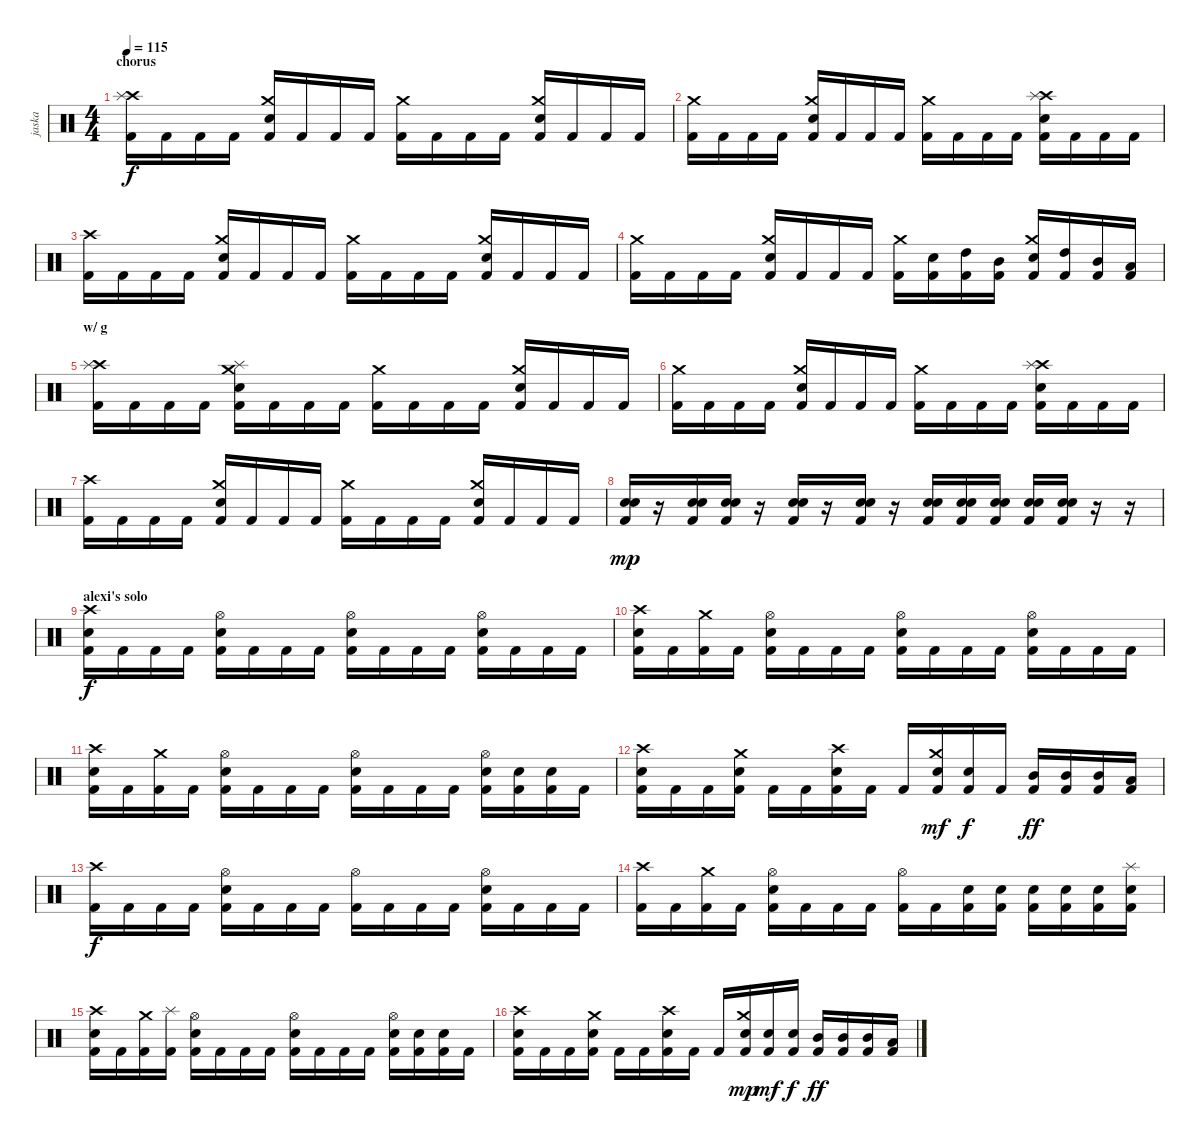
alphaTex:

\track ("jaska" "jaska") {instrument percussion}
\staff {score}
\articulation defaults
\ts (4 4)
\section ("" "chorus")
\tempo 115
\clef neutral
\ks c
("Crash high (hit)" "Splash (hit)" "Kick (hit) 2").16{dy f} "Kick (hit) 2".16 "Kick (hit) 2".16 "Kick (hit) 2".16 ("Crash medium (hit)" "Electric Snare (hit)" "Kick (hit) 2").16 "Kick (hit) 2".16 "Kick (hit) 2".16 "Kick (hit) 2".16 ("Crash medium (hit)" "Kick (hit) 2").16 "Kick (hit) 2".16 "Kick (hit) 2".16 "Kick (hit) 2".16 ("Crash medium (hit)" "Electric Snare (hit)" "Kick (hit) 2").16 "Kick (hit) 2".16 "Kick (hit) 2".16 "Kick (hit) 2".16 |
("Crash medium (hit)" "Kick (hit) 2").16 "Kick (hit) 2".16 "Kick (hit) 2".16 "Kick (hit) 2".16 ("Crash medium (hit)" "Electric Snare (hit)" "Kick (hit) 2").16 "Kick (hit) 2".16 "Kick (hit) 2".16 "Kick (hit) 2".16 ("Crash medium (hit)" "Kick (hit) 2").16 "Kick (hit) 2".16 "Kick (hit) 2".16 "Kick (hit) 2".16 ("Crash high (hit)" "Splash (hit)" "Electric Snare (hit)" "Kick (hit) 2").16 "Kick (hit) 2".16 "Kick (hit) 2".16 "Kick (hit) 2".16 |
("Crash high (hit)" "Kick (hit) 2").16 "Kick (hit) 2".16 "Kick (hit) 2".16 "Kick (hit) 2".16 ("Crash medium (hit)" "Electric Snare (hit)" "Kick (hit) 2").16 "Kick (hit) 2".16 "Kick (hit) 2".16 "Kick (hit) 2".16 ("Crash medium (hit)" "Kick (hit) 2").16 "Kick (hit) 2".16 "Kick (hit) 2".16 "Kick (hit) 2".16 ("Crash medium (hit)" "Electric Snare (hit)" "Kick (hit) 2").16 "Kick (hit) 2".16 "Kick (hit) 2".16 "Kick (hit) 2".16 |
("Crash medium (hit)" "Kick (hit) 2").16 "Kick (hit) 2".16 "Kick (hit) 2".16 "Kick (hit) 2".16 ("Crash medium (hit)" "Electric Snare (hit)" "Kick (hit) 2").16 "Kick (hit) 2".16 "Kick (hit) 2".16 "Kick (hit) 2".16 ("Crash medium (hit)" "Kick (hit) 2").16 ("Electric Snare (hit)" "Kick (hit) 2").16 ("High Tom (hit)" "Kick (hit) 2").16 ("Mid Tom (hit)" "Kick (hit) 2").16 ("Crash medium (hit)" "Electric Snare (hit)" "Kick (hit) 2").16 ("High Tom (hit)" "Kick (hit) 2").16 ("Mid Tom (hit)" "Kick (hit) 2").16 ("Low Tom (hit)" "Kick (hit) 2").16 |
\section ("" "w/ g")
("Crash high (hit)" "Splash (hit)" "Kick (hit) 2").16 "Kick (hit) 2".16 "Kick (hit) 2".16 "Kick (hit) 2".16 ("Crash medium (hit)" "Splash (hit)" "Electric Snare (hit)" "Kick (hit) 2").16 "Kick (hit) 2".16 "Kick (hit) 2".16 "Kick (hit) 2".16 ("Crash medium (hit)" "Kick (hit) 2").16 "Kick (hit) 2".16 "Kick (hit) 2".16 "Kick (hit) 2".16 ("Crash medium (hit)" "Electric Snare (hit)" "Kick (hit) 2").16 "Kick (hit) 2".16 "Kick (hit) 2".16 "Kick (hit) 2".16 |
("Crash medium (hit)" "Kick (hit) 2").16 "Kick (hit) 2".16 "Kick (hit) 2".16 "Kick (hit) 2".16 ("Crash medium (hit)" "Electric Snare (hit)" "Kick (hit) 2").16 "Kick (hit) 2".16 "Kick (hit) 2".16 "Kick (hit) 2".16 ("Crash medium (hit)" "Kick (hit) 2").16 "Kick (hit) 2".16 "Kick (hit) 2".16 "Kick (hit) 2".16 ("Crash high (hit)" "Splash (hit)" "Electric Snare (hit)" "Kick (hit) 2").16 "Kick (hit) 2".16 "Kick (hit) 2".16 "Kick (hit) 2".16 |
("Crash high (hit)" "Kick (hit) 2").16 "Kick (hit) 2".16 "Kick (hit) 2".16 "Kick (hit) 2".16 ("Crash medium (hit)" "Electric Snare (hit)" "Kick (hit) 2").16 "Kick (hit) 2".16 "Kick (hit) 2".16 "Kick (hit) 2".16 ("Crash medium (hit)" "Kick (hit) 2").16 "Kick (hit) 2".16 "Kick (hit) 2".16 "Kick (hit) 2".16 ("Crash medium (hit)" "Electric Snare (hit)" "Kick (hit) 2").16 "Kick (hit) 2".16 "Kick (hit) 2".16 "Kick (hit) 2".16 |
("Snare (hit) 2" "Electric Snare (hit)" "Kick (hit) 2").16{dy mp} r.16 ("Snare (hit) 2" "Electric Snare (hit)" "Kick (hit) 2").16 ("Snare (hit) 2" "Electric Snare (hit)" "Kick (hit) 2").16 r.16 ("Snare (hit) 2" "Electric Snare (hit)" "Kick (hit) 2").16 r.16 ("Snare (hit) 2" "Electric Snare (hit)" "Kick (hit) 2").16 r.16 ("Snare (hit) 2" "Electric Snare (hit)" "Kick (hit) 2").16 ("Snare (hit) 2" "Electric Snare (hit)" "Kick (hit) 2").16 ("Snare (hit) 2" "Electric Snare (hit)" "Kick (hit) 2").16 ("Snare (hit) 2" "Electric Snare (hit)" "Kick (hit) 2").16 ("Snare (hit) 2" "Electric Snare (hit)" "Kick (hit) 2").16 r.16 r.16 |
\section ("" "alexi's solo")
("Crash high (hit)" "Electric Snare (hit)" "Kick (hit) 2").16{dy f} "Kick (hit) 2".16 "Kick (hit) 2".16 "Kick (hit) 2".16 ("Hi-Hat (open)" "Electric Snare (hit)" "Kick (hit) 2").16 "Kick (hit) 2".16 "Kick (hit) 2".16 "Kick (hit) 2".16 ("Hi-Hat (open)" "Electric Snare (hit)" "Kick (hit) 2").16 "Kick (hit) 2".16 "Kick (hit) 2".16 "Kick (hit) 2".16 ("Hi-Hat (open)" "Electric Snare (hit)" "Kick (hit) 2").16 "Kick (hit) 2".16 "Kick (hit) 2".16 "Kick (hit) 2".16 |
("Crash high (hit)" "Electric Snare (hit)" "Kick (hit) 2").16 "Kick (hit) 2".16 ("Crash medium (hit)" "Kick (hit) 2").16 "Kick (hit) 2".16 ("Hi-Hat (open)" "Electric Snare (hit)" "Kick (hit) 2").16 "Kick (hit) 2".16 "Kick (hit) 2".16 "Kick (hit) 2".16 ("Hi-Hat (open)" "Electric Snare (hit)" "Kick (hit) 2").16 "Kick (hit) 2".16 "Kick (hit) 2".16 "Kick (hit) 2".16 ("Hi-Hat (open)" "Electric Snare (hit)" "Kick (hit) 2").16 "Kick (hit) 2".16 "Kick (hit) 2".16 "Kick (hit) 2".16 |
("Crash high (hit)" "Electric Snare (hit)" "Kick (hit) 2").16 "Kick (hit) 2".16 ("Crash medium (hit)" "Kick (hit) 2").16 "Kick (hit) 2".16 ("Hi-Hat (open)" "Electric Snare (hit)" "Kick (hit) 2").16 "Kick (hit) 2".16 "Kick (hit) 2".16 "Kick (hit) 2".16 ("Hi-Hat (open)" "Electric Snare (hit)" "Kick (hit) 2").16 "Kick (hit) 2".16 "Kick (hit) 2".16 "Kick (hit) 2".16 ("Hi-Hat (open)" "Electric Snare (hit)" "Kick (hit) 2").16 ("Electric Snare (hit)" "Kick (hit) 2").16 ("Electric Snare (hit)" "Kick (hit) 2").16 "Kick (hit) 2".16 |
("Crash high (hit)" "Electric Snare (hit)" "Kick (hit) 2").16 "Kick (hit) 2".16 "Kick (hit) 2".16 ("Crash medium (hit)" "Electric Snare (hit)" "Kick (hit) 2").16 "Kick (hit) 2".16 "Kick (hit) 2".16 ("Crash high (hit)" "Electric Snare (hit)" "Kick (hit) 2").16 "Kick (hit) 2".16 "Kick (hit) 2".16 ("Crash medium (hit)" "Electric Snare (hit)" "Kick (hit) 2").16{dy mf} ("Electric Snare (hit)" "Kick (hit) 2").16{dy f} "Kick (hit) 2".16 ("Mid Tom (hit)" "Kick (hit) 2").16{dy ff} ("Mid Tom (hit)" "Kick (hit) 2").16 ("Mid Tom (hit)" "Kick (hit) 2").16 ("Low Tom (hit)" "Kick (hit) 2").16 |
("Crash high (hit)" "Kick (hit) 2").16{dy f} "Kick (hit) 2".16 "Kick (hit) 2".16 "Kick (hit) 2".16 ("Hi-Hat (open)" "Electric Snare (hit)" "Kick (hit) 2").16 "Kick (hit) 2".16 "Kick (hit) 2".16 "Kick (hit) 2".16 ("Hi-Hat (open)" "Kick (hit) 2").16 "Kick (hit) 2".16 "Kick (hit) 2".16 "Kick (hit) 2".16 ("Hi-Hat (open)" "Electric Snare (hit)" "Kick (hit) 2").16 "Kick (hit) 2".16 "Kick (hit) 2".16 "Kick (hit) 2".16 |
("Crash high (hit)" "Kick (hit) 2").16 "Kick (hit) 2".16 ("Crash medium (hit)" "Kick (hit) 2").16 "Kick (hit) 2".16 ("Hi-Hat (open)" "Electric Snare (hit)" "Kick (hit) 2").16 "Kick (hit) 2".16 "Kick (hit) 2".16 "Kick (hit) 2".16 ("Hi-Hat (open)" "Kick (hit) 2").16 "Kick (hit) 2".16 ("Electric Snare (hit)" "Kick (hit) 2").16 ("Electric Snare (hit)" "Kick (hit) 2").16 ("Electric Snare (hit)" "Kick (hit) 2").16 ("Electric Snare (hit)" "Kick (hit) 2").16 ("Electric Snare (hit)" "Kick (hit) 2").16 ("Splash (hit)" "Electric Snare (hit)" "Kick (hit) 2").16 |
("Crash high (hit)" "Electric Snare (hit)" "Kick (hit) 2").16 "Kick (hit) 2".16 ("Crash medium (hit)" "Kick (hit) 2").16 ("Splash (hit)" "Kick (hit) 2").16 ("Hi-Hat (open)" "Electric Snare (hit)" "Kick (hit) 2").16 "Kick (hit) 2".16 "Kick (hit) 2".16 "Kick (hit) 2".16 ("Hi-Hat (open)" "Electric Snare (hit)" "Kick (hit) 2").16 "Kick (hit) 2".16 "Kick (hit) 2".16 "Kick (hit) 2".16 ("Hi-Hat (open)" "Electric Snare (hit)" "Kick (hit) 2").16 ("Electric Snare (hit)" "Kick (hit) 2").16 ("Electric Snare (hit)" "Kick (hit) 2").16 "Kick (hit) 2".16 |
("Crash high (hit)" "Electric Snare (hit)" "Kick (hit) 2").16 "Kick (hit) 2".16 "Kick (hit) 2".16 ("Crash medium (hit)" "Electric Snare (hit)" "Kick (hit) 2").16 "Kick (hit) 2".16 "Kick (hit) 2".16 ("Crash high (hit)" "Electric Snare (hit)" "Kick (hit) 2").16 "Kick (hit) 2".16 "Kick (hit) 2".16 ("Crash medium (hit)" "Electric Snare (hit)" "Kick (hit) 2").16{dy mp} ("Electric Snare (hit)" "Kick (hit) 2").16{dy mf} ("Electric Snare (hit)" "Kick (hit) 2").16{dy f} ("Mid Tom (hit)" "Kick (hit) 2").16{dy ff} ("Mid Tom (hit)" "Kick (hit) 2").16 ("Mid Tom (hit)" "Kick (hit) 2").16 ("Low Tom (hit)" "Kick (hit) 2").16
